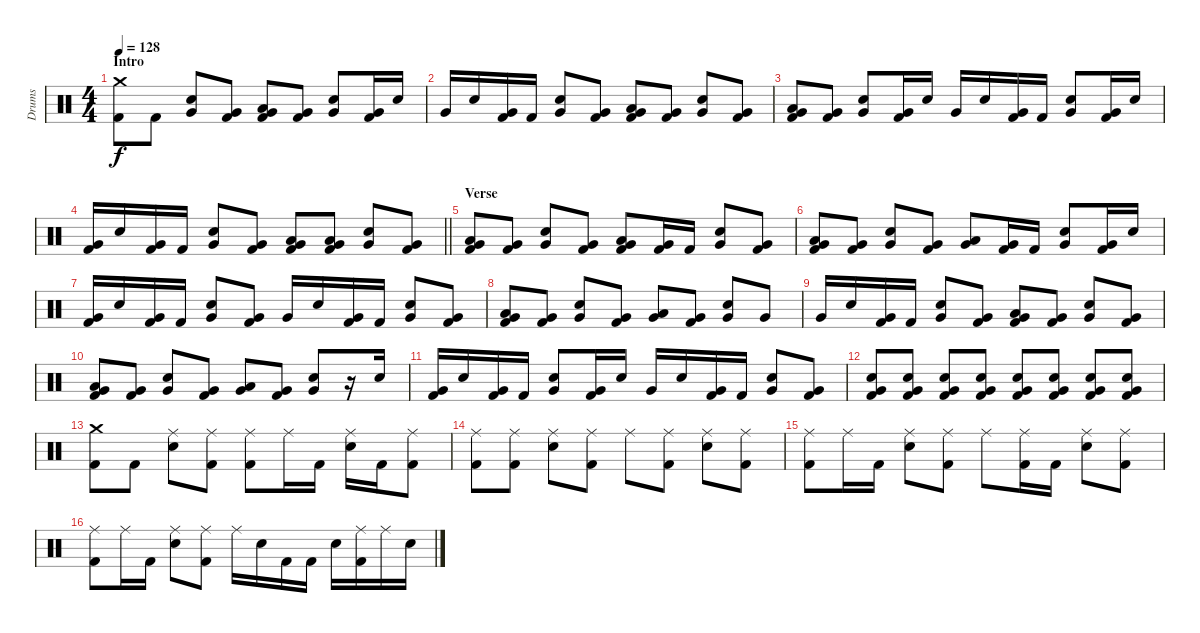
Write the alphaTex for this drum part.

\track ("Drums" "Drums") {instrument percussion}
\staff {score}
\articulation defaults
\ts (4 4)
\section ("" "Intro")
\tempo 128
\clef neutral
\ks c
("Crash medium (hit)" "Kick (hit) 2").8{dy f} "Kick (hit) 2".8 ("Snare (hit) 2" "Very Low Tom (hit)").8 ("Kick (hit) 2" "Very Low Tom (hit)").8 ("Kick (hit) 2" "Very Low Tom (hit)" "Low Tom (hit)").8 ("Kick (hit) 2" "Very Low Tom (hit)").8 ("Snare (hit) 2" "Very Low Tom (hit)").8 ("Kick (hit) 2" "Very Low Tom (hit)").16 "Snare (hit) 2".16 |
"Very Low Tom (hit)".16 "Snare (hit) 2".16 ("Kick (hit) 2" "Very Low Tom (hit)").16 "Kick (hit) 2".16 ("Snare (hit) 2" "Very Low Tom (hit)").8 ("Kick (hit) 2" "Very Low Tom (hit)").8 ("Kick (hit) 2" "Very Low Tom (hit)" "Low Tom (hit)").8 ("Kick (hit) 2" "Very Low Tom (hit)").8 ("Snare (hit) 2" "Very Low Tom (hit)").8 ("Kick (hit) 2" "Very Low Tom (hit)").8 |
("Kick (hit) 2" "Very Low Tom (hit)" "Low Tom (hit)").8 ("Kick (hit) 2" "Very Low Tom (hit)").8 ("Snare (hit) 2" "Very Low Tom (hit)").8 ("Kick (hit) 2" "Very Low Tom (hit)").16 "Snare (hit) 2".16 "Very Low Tom (hit)".16 "Snare (hit) 2".16 ("Kick (hit) 2" "Very Low Tom (hit)").16 "Kick (hit) 2".16 ("Snare (hit) 2" "Very Low Tom (hit)").8 ("Kick (hit) 2" "Very Low Tom (hit)").16 "Snare (hit) 2".16 |
\barLineRight lightlight
("Kick (hit) 2" "Very Low Tom (hit)").16 "Snare (hit) 2".16 ("Kick (hit) 2" "Very Low Tom (hit)").16 "Kick (hit) 2".16 ("Snare (hit) 2" "Very Low Tom (hit)").8 ("Kick (hit) 2" "Very Low Tom (hit)").8 ("Kick (hit) 2" "Very Low Tom (hit)" "Low Tom (hit)").8 ("Kick (hit) 2" "Very Low Tom (hit)" "Low Tom (hit)").8 ("Snare (hit) 2" "Very Low Tom (hit)").8 ("Kick (hit) 2" "Very Low Tom (hit)").8 |
\section ("" "Verse")
("Kick (hit) 2" "Very Low Tom (hit)" "Low Tom (hit)").8 ("Kick (hit) 2" "Very Low Tom (hit)").8 ("Snare (hit) 2" "Very Low Tom (hit)").8 ("Kick (hit) 2" "Very Low Tom (hit)").8 ("Kick (hit) 2" "Very Low Tom (hit)" "Low Tom (hit)").8 ("Kick (hit) 2" "Very Low Tom (hit)").16 "Kick (hit) 2".16 ("Snare (hit) 2" "Very Low Tom (hit)").8 ("Kick (hit) 2" "Very Low Tom (hit)").8 |
("Kick (hit) 2" "Very Low Tom (hit)" "Low Tom (hit)").8 ("Kick (hit) 2" "Very Low Tom (hit)").8 ("Snare (hit) 2" "Very Low Tom (hit)").8 ("Kick (hit) 2" "Very Low Tom (hit)").8 ("Very Low Tom (hit)" "Low Tom (hit)").8 ("Kick (hit) 2" "Very Low Tom (hit)").16 "Kick (hit) 2".16 ("Snare (hit) 2" "Very Low Tom (hit)").8 ("Kick (hit) 2" "Very Low Tom (hit)").16 "Snare (hit) 2".16 |
("Kick (hit) 2" "Very Low Tom (hit)").16 "Snare (hit) 2".16 ("Kick (hit) 2" "Very Low Tom (hit)").16 "Kick (hit) 2".16 ("Snare (hit) 2" "Very Low Tom (hit)").8 ("Kick (hit) 2" "Very Low Tom (hit)").8 "Very Low Tom (hit)".16 "Snare (hit) 2".16 ("Kick (hit) 2" "Very Low Tom (hit)").16 "Kick (hit) 2".16 ("Snare (hit) 2" "Very Low Tom (hit)").8 ("Kick (hit) 2" "Very Low Tom (hit)").8 |
("Kick (hit) 2" "Very Low Tom (hit)" "Low Tom (hit)").8 ("Kick (hit) 2" "Very Low Tom (hit)").8 ("Snare (hit) 2" "Very Low Tom (hit)").8 ("Kick (hit) 2" "Very Low Tom (hit)").8 ("Very Low Tom (hit)" "Low Tom (hit)").8 ("Kick (hit) 2" "Very Low Tom (hit)").8 ("Snare (hit) 2" "Very Low Tom (hit)").8 "Very Low Tom (hit)".8 |
"Very Low Tom (hit)".16 "Snare (hit) 2".16 ("Kick (hit) 2" "Very Low Tom (hit)").16 "Kick (hit) 2".16 ("Snare (hit) 2" "Very Low Tom (hit)").8 ("Kick (hit) 2" "Very Low Tom (hit)").8 ("Kick (hit) 2" "Very Low Tom (hit)" "Low Tom (hit)").8 ("Kick (hit) 2" "Very Low Tom (hit)").8 ("Snare (hit) 2" "Very Low Tom (hit)").8 ("Kick (hit) 2" "Very Low Tom (hit)").8 |
("Kick (hit) 2" "Very Low Tom (hit)" "Low Tom (hit)").8 ("Kick (hit) 2" "Very Low Tom (hit)").8 ("Snare (hit) 2" "Very Low Tom (hit)").8 ("Kick (hit) 2" "Very Low Tom (hit)").8 ("Very Low Tom (hit)" "Low Tom (hit)").8 ("Kick (hit) 2" "Very Low Tom (hit)").8 ("Snare (hit) 2" "Very Low Tom (hit)").8 r.16 "Snare (hit) 2".16 |
("Kick (hit) 2" "Very Low Tom (hit)").16 "Snare (hit) 2".16 ("Kick (hit) 2" "Very Low Tom (hit)").16 "Kick (hit) 2".16 ("Snare (hit) 2" "Very Low Tom (hit)").8 ("Kick (hit) 2" "Very Low Tom (hit)").16 "Snare (hit) 2".16 "Very Low Tom (hit)".16 "Snare (hit) 2".16 ("Kick (hit) 2" "Very Low Tom (hit)").16 "Kick (hit) 2".16 ("Snare (hit) 2" "Very Low Tom (hit)").8 ("Kick (hit) 2" "Very Low Tom (hit)").8 |
("Snare (hit) 2" "Kick (hit) 2" "Very Low Tom (hit)").8 ("Snare (hit) 2" "Kick (hit) 2" "Very Low Tom (hit)").8 ("Snare (hit) 2" "Kick (hit) 2" "Very Low Tom (hit)").8 ("Snare (hit) 2" "Kick (hit) 2" "Very Low Tom (hit)").8 ("Snare (hit) 2" "Kick (hit) 2" "Very Low Tom (hit)").8 ("Snare (hit) 2" "Kick (hit) 2" "Very Low Tom (hit)").8 ("Snare (hit) 2" "Kick (hit) 2" "Very Low Tom (hit)").8 ("Snare (hit) 2" "Kick (hit) 2" "Very Low Tom (hit)").8 |
("Crash medium (hit)" "Kick (hit) 2").8 "Kick (hit) 2".8 ("Ride (middle)" "Snare (hit) 2").8 ("Ride (middle)" "Kick (hit) 2").8 ("Ride (middle)" "Kick (hit) 2").8 "Ride (middle)".16 "Kick (hit) 2".16 ("Ride (middle)" "Snare (hit) 2").16 "Kick (hit) 2".16 ("Ride (middle)" "Kick (hit) 2").8 |
("Ride (middle)" "Kick (hit) 2").8 ("Ride (middle)" "Kick (hit) 2").8 ("Ride (middle)" "Snare (hit) 2").8 ("Ride (middle)" "Kick (hit) 2").8 "Ride (middle)".8 ("Ride (middle)" "Kick (hit) 2").8 ("Ride (middle)" "Snare (hit) 2").8 ("Ride (middle)" "Kick (hit) 2").8 |
("Ride (middle)" "Kick (hit) 2").8 "Ride (middle)".16 "Kick (hit) 2".16 ("Ride (middle)" "Snare (hit) 2").8 ("Ride (middle)" "Kick (hit) 2").8 "Ride (middle)".8 ("Ride (middle)" "Kick (hit) 2").16 "Kick (hit) 2".16 ("Ride (middle)" "Snare (hit) 2").8 ("Ride (middle)" "Kick (hit) 2").8 |
("Ride (middle)" "Kick (hit) 2").8 "Ride (middle)".16 "Kick (hit) 2".16 ("Ride (middle)" "Snare (hit) 2").8 ("Ride (middle)" "Kick (hit) 2").8 "Ride (middle)".16 "Snare (hit) 2".16 "Kick (hit) 2".16 "Kick (hit) 2".16 "Snare (hit) 2".16 ("Ride (middle)" "Kick (hit) 2").16 "Ride (middle)".16 "Snare (hit) 2".16
